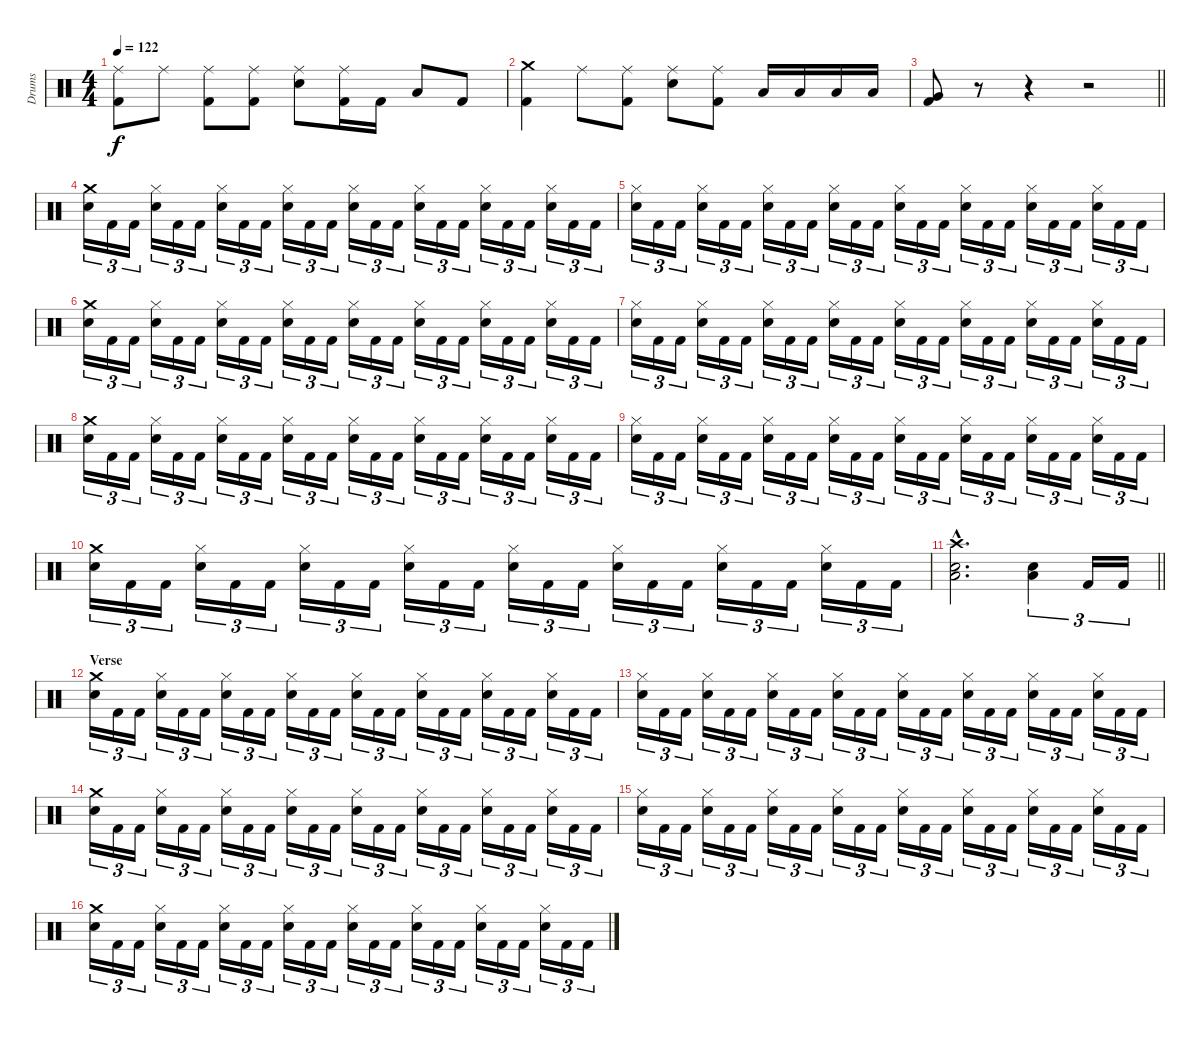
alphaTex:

\track ("Drums" "Drums") {instrument percussion}
\staff {score}
\articulation defaults
\ts (4 4)
\tempo 122
\clef neutral
\ks c
("Ride (middle)" "Kick (hit) 2").8{dy f} "Ride (middle)".8 ("Ride (middle)" "Kick (hit) 2").8 ("Ride (middle)" "Kick (hit) 2").8 ("Ride (middle)" "Electric Snare (hit)").8 ("Ride (middle)" "Kick (hit) 2").16 "Kick (hit) 2".16 "Low Tom (hit)".8 "Kick (hit) 2".8 |
("Crash medium (hit)" "Kick (hit) 2").4 "Ride (middle)".8 ("Ride (middle)" "Kick (hit) 2").8 ("Ride (middle)" "Electric Snare (hit)").8 ("Ride (middle)" "Kick (hit) 2").8 "Low Tom (hit)".16 "Low Tom (hit)".16 "Low Tom (hit)".16 "Low Tom (hit)".16 |
\barLineRight lightlight
("Very Low Tom (hit)" "Kick (hit) 2").8 r.8 r.4 r.2 |
\section ("" "")
("Crash medium (hit)" "Electric Snare (hit)").16{tu (3 2)} "Kick (hit) 2".16{tu (3 2)} "Kick (hit) 2".16{tu (3 2)} ("Hi-Hat (closed)" "Electric Snare (hit)").16{tu (3 2)} "Kick (hit) 2".16{tu (3 2)} "Kick (hit) 2".16{tu (3 2)} ("Hi-Hat (closed)" "Electric Snare (hit)").16{tu (3 2)} "Kick (hit) 2".16{tu (3 2)} "Kick (hit) 2".16{tu (3 2)} ("Hi-Hat (closed)" "Electric Snare (hit)").16{tu (3 2)} "Kick (hit) 2".16{tu (3 2)} "Kick (hit) 2".16{tu (3 2)} ("Hi-Hat (closed)" "Electric Snare (hit)").16{tu (3 2)} "Kick (hit) 2".16{tu (3 2)} "Kick (hit) 2".16{tu (3 2)} ("Hi-Hat (closed)" "Electric Snare (hit)").16{tu (3 2)} "Kick (hit) 2".16{tu (3 2)} "Kick (hit) 2".16{tu (3 2)} ("Hi-Hat (closed)" "Electric Snare (hit)").16{tu (3 2)} "Kick (hit) 2".16{tu (3 2)} "Kick (hit) 2".16{tu (3 2)} ("Hi-Hat (closed)" "Electric Snare (hit)").16{tu (3 2)} "Kick (hit) 2".16{tu (3 2)} "Kick (hit) 2".16{tu (3 2)} |
("Hi-Hat (closed)" "Electric Snare (hit)").16{tu (3 2)} "Kick (hit) 2".16{tu (3 2)} "Kick (hit) 2".16{tu (3 2)} ("Hi-Hat (closed)" "Electric Snare (hit)").16{tu (3 2)} "Kick (hit) 2".16{tu (3 2)} "Kick (hit) 2".16{tu (3 2)} ("Hi-Hat (closed)" "Electric Snare (hit)").16{tu (3 2)} "Kick (hit) 2".16{tu (3 2)} "Kick (hit) 2".16{tu (3 2)} ("Hi-Hat (closed)" "Electric Snare (hit)").16{tu (3 2)} "Kick (hit) 2".16{tu (3 2)} "Kick (hit) 2".16{tu (3 2)} ("Hi-Hat (closed)" "Electric Snare (hit)").16{tu (3 2)} "Kick (hit) 2".16{tu (3 2)} "Kick (hit) 2".16{tu (3 2)} ("Hi-Hat (closed)" "Electric Snare (hit)").16{tu (3 2)} "Kick (hit) 2".16{tu (3 2)} "Kick (hit) 2".16{tu (3 2)} ("Hi-Hat (closed)" "Electric Snare (hit)").16{tu (3 2)} "Kick (hit) 2".16{tu (3 2)} "Kick (hit) 2".16{tu (3 2)} ("Hi-Hat (closed)" "Electric Snare (hit)").16{tu (3 2)} "Kick (hit) 2".16{tu (3 2)} "Kick (hit) 2".16{tu (3 2)} |
("Crash medium (hit)" "Electric Snare (hit)").16{tu (3 2)} "Kick (hit) 2".16{tu (3 2)} "Kick (hit) 2".16{tu (3 2)} ("Hi-Hat (closed)" "Electric Snare (hit)").16{tu (3 2)} "Kick (hit) 2".16{tu (3 2)} "Kick (hit) 2".16{tu (3 2)} ("Hi-Hat (closed)" "Electric Snare (hit)").16{tu (3 2)} "Kick (hit) 2".16{tu (3 2)} "Kick (hit) 2".16{tu (3 2)} ("Hi-Hat (closed)" "Electric Snare (hit)").16{tu (3 2)} "Kick (hit) 2".16{tu (3 2)} "Kick (hit) 2".16{tu (3 2)} ("Hi-Hat (closed)" "Electric Snare (hit)").16{tu (3 2)} "Kick (hit) 2".16{tu (3 2)} "Kick (hit) 2".16{tu (3 2)} ("Hi-Hat (closed)" "Electric Snare (hit)").16{tu (3 2)} "Kick (hit) 2".16{tu (3 2)} "Kick (hit) 2".16{tu (3 2)} ("Hi-Hat (closed)" "Electric Snare (hit)").16{tu (3 2)} "Kick (hit) 2".16{tu (3 2)} "Kick (hit) 2".16{tu (3 2)} ("Hi-Hat (closed)" "Electric Snare (hit)").16{tu (3 2)} "Kick (hit) 2".16{tu (3 2)} "Kick (hit) 2".16{tu (3 2)} |
("Hi-Hat (closed)" "Electric Snare (hit)").16{tu (3 2)} "Kick (hit) 2".16{tu (3 2)} "Kick (hit) 2".16{tu (3 2)} ("Hi-Hat (closed)" "Electric Snare (hit)").16{tu (3 2)} "Kick (hit) 2".16{tu (3 2)} "Kick (hit) 2".16{tu (3 2)} ("Hi-Hat (closed)" "Electric Snare (hit)").16{tu (3 2)} "Kick (hit) 2".16{tu (3 2)} "Kick (hit) 2".16{tu (3 2)} ("Hi-Hat (closed)" "Electric Snare (hit)").16{tu (3 2)} "Kick (hit) 2".16{tu (3 2)} "Kick (hit) 2".16{tu (3 2)} ("Hi-Hat (closed)" "Electric Snare (hit)").16{tu (3 2)} "Kick (hit) 2".16{tu (3 2)} "Kick (hit) 2".16{tu (3 2)} ("Hi-Hat (closed)" "Electric Snare (hit)").16{tu (3 2)} "Kick (hit) 2".16{tu (3 2)} "Kick (hit) 2".16{tu (3 2)} ("Hi-Hat (closed)" "Electric Snare (hit)").16{tu (3 2)} "Kick (hit) 2".16{tu (3 2)} "Kick (hit) 2".16{tu (3 2)} ("Hi-Hat (closed)" "Electric Snare (hit)").16{tu (3 2)} "Kick (hit) 2".16{tu (3 2)} "Kick (hit) 2".16{tu (3 2)} |
("Crash medium (hit)" "Electric Snare (hit)").16{tu (3 2)} "Kick (hit) 2".16{tu (3 2)} "Kick (hit) 2".16{tu (3 2)} ("Hi-Hat (closed)" "Electric Snare (hit)").16{tu (3 2)} "Kick (hit) 2".16{tu (3 2)} "Kick (hit) 2".16{tu (3 2)} ("Hi-Hat (closed)" "Electric Snare (hit)").16{tu (3 2)} "Kick (hit) 2".16{tu (3 2)} "Kick (hit) 2".16{tu (3 2)} ("Hi-Hat (closed)" "Electric Snare (hit)").16{tu (3 2)} "Kick (hit) 2".16{tu (3 2)} "Kick (hit) 2".16{tu (3 2)} ("Hi-Hat (closed)" "Electric Snare (hit)").16{tu (3 2)} "Kick (hit) 2".16{tu (3 2)} "Kick (hit) 2".16{tu (3 2)} ("Hi-Hat (closed)" "Electric Snare (hit)").16{tu (3 2)} "Kick (hit) 2".16{tu (3 2)} "Kick (hit) 2".16{tu (3 2)} ("Hi-Hat (closed)" "Electric Snare (hit)").16{tu (3 2)} "Kick (hit) 2".16{tu (3 2)} "Kick (hit) 2".16{tu (3 2)} ("Hi-Hat (closed)" "Electric Snare (hit)").16{tu (3 2)} "Kick (hit) 2".16{tu (3 2)} "Kick (hit) 2".16{tu (3 2)} |
("Hi-Hat (closed)" "Electric Snare (hit)").16{tu (3 2)} "Kick (hit) 2".16{tu (3 2)} "Kick (hit) 2".16{tu (3 2)} ("Hi-Hat (closed)" "Electric Snare (hit)").16{tu (3 2)} "Kick (hit) 2".16{tu (3 2)} "Kick (hit) 2".16{tu (3 2)} ("Hi-Hat (closed)" "Electric Snare (hit)").16{tu (3 2)} "Kick (hit) 2".16{tu (3 2)} "Kick (hit) 2".16{tu (3 2)} ("Hi-Hat (closed)" "Electric Snare (hit)").16{tu (3 2)} "Kick (hit) 2".16{tu (3 2)} "Kick (hit) 2".16{tu (3 2)} ("Hi-Hat (closed)" "Electric Snare (hit)").16{tu (3 2)} "Kick (hit) 2".16{tu (3 2)} "Kick (hit) 2".16{tu (3 2)} ("Hi-Hat (closed)" "Electric Snare (hit)").16{tu (3 2)} "Kick (hit) 2".16{tu (3 2)} "Kick (hit) 2".16{tu (3 2)} ("Hi-Hat (closed)" "Electric Snare (hit)").16{tu (3 2)} "Kick (hit) 2".16{tu (3 2)} "Kick (hit) 2".16{tu (3 2)} ("Hi-Hat (closed)" "Electric Snare (hit)").16{tu (3 2)} "Kick (hit) 2".16{tu (3 2)} "Kick (hit) 2".16{tu (3 2)} |
("Crash medium (hit)" "Electric Snare (hit)").16{tu (3 2)} "Kick (hit) 2".16{tu (3 2)} "Kick (hit) 2".16{tu (3 2)} ("Hi-Hat (closed)" "Electric Snare (hit)").16{tu (3 2)} "Kick (hit) 2".16{tu (3 2)} "Kick (hit) 2".16{tu (3 2)} ("Hi-Hat (closed)" "Electric Snare (hit)").16{tu (3 2)} "Kick (hit) 2".16{tu (3 2)} "Kick (hit) 2".16{tu (3 2)} ("Hi-Hat (closed)" "Electric Snare (hit)").16{tu (3 2)} "Kick (hit) 2".16{tu (3 2)} "Kick (hit) 2".16{tu (3 2)} ("Hi-Hat (closed)" "Electric Snare (hit)").16{tu (3 2)} "Kick (hit) 2".16{tu (3 2)} "Kick (hit) 2".16{tu (3 2)} ("Hi-Hat (closed)" "Electric Snare (hit)").16{tu (3 2)} "Kick (hit) 2".16{tu (3 2)} "Kick (hit) 2".16{tu (3 2)} ("Hi-Hat (closed)" "Electric Snare (hit)").16{tu (3 2)} "Kick (hit) 2".16{tu (3 2)} "Kick (hit) 2".16{tu (3 2)} ("Hi-Hat (closed)" "Electric Snare (hit)").16{tu (3 2)} "Kick (hit) 2".16{tu (3 2)} "Kick (hit) 2".16{tu (3 2)} |
\barLineRight lightlight
("Crash high (hit)"{hac} "Low Tom (hit)"{hac} "Electric Snare (hit)"{hac}).2{d} ("Low Floor Tom (hit)" "Electric Snare (hit)").4{tu (3 2)} "Kick (hit) 2".16{tu (3 2)} "Kick (hit) 2".16{tu (3 2)} |
\section ("" "Verse")
("Crash medium (hit)" "Electric Snare (hit)").16{tu (3 2)} "Kick (hit) 2".16{tu (3 2)} "Kick (hit) 2".16{tu (3 2)} ("Hi-Hat (closed)" "Electric Snare (hit)").16{tu (3 2)} "Kick (hit) 2".16{tu (3 2)} "Kick (hit) 2".16{tu (3 2)} ("Hi-Hat (closed)" "Electric Snare (hit)").16{tu (3 2)} "Kick (hit) 2".16{tu (3 2)} "Kick (hit) 2".16{tu (3 2)} ("Hi-Hat (closed)" "Electric Snare (hit)").16{tu (3 2)} "Kick (hit) 2".16{tu (3 2)} "Kick (hit) 2".16{tu (3 2)} ("Hi-Hat (closed)" "Electric Snare (hit)").16{tu (3 2)} "Kick (hit) 2".16{tu (3 2)} "Kick (hit) 2".16{tu (3 2)} ("Hi-Hat (closed)" "Electric Snare (hit)").16{tu (3 2)} "Kick (hit) 2".16{tu (3 2)} "Kick (hit) 2".16{tu (3 2)} ("Hi-Hat (closed)" "Electric Snare (hit)").16{tu (3 2)} "Kick (hit) 2".16{tu (3 2)} "Kick (hit) 2".16{tu (3 2)} ("Hi-Hat (closed)" "Electric Snare (hit)").16{tu (3 2)} "Kick (hit) 2".16{tu (3 2)} "Kick (hit) 2".16{tu (3 2)} |
("Hi-Hat (closed)" "Electric Snare (hit)").16{tu (3 2)} "Kick (hit) 2".16{tu (3 2)} "Kick (hit) 2".16{tu (3 2)} ("Hi-Hat (closed)" "Electric Snare (hit)").16{tu (3 2)} "Kick (hit) 2".16{tu (3 2)} "Kick (hit) 2".16{tu (3 2)} ("Hi-Hat (closed)" "Electric Snare (hit)").16{tu (3 2)} "Kick (hit) 2".16{tu (3 2)} "Kick (hit) 2".16{tu (3 2)} ("Hi-Hat (closed)" "Electric Snare (hit)").16{tu (3 2)} "Kick (hit) 2".16{tu (3 2)} "Kick (hit) 2".16{tu (3 2)} ("Hi-Hat (closed)" "Electric Snare (hit)").16{tu (3 2)} "Kick (hit) 2".16{tu (3 2)} "Kick (hit) 2".16{tu (3 2)} ("Hi-Hat (closed)" "Electric Snare (hit)").16{tu (3 2)} "Kick (hit) 2".16{tu (3 2)} "Kick (hit) 2".16{tu (3 2)} ("Hi-Hat (closed)" "Electric Snare (hit)").16{tu (3 2)} "Kick (hit) 2".16{tu (3 2)} "Kick (hit) 2".16{tu (3 2)} ("Hi-Hat (closed)" "Electric Snare (hit)").16{tu (3 2)} "Kick (hit) 2".16{tu (3 2)} "Kick (hit) 2".16{tu (3 2)} |
("Crash medium (hit)" "Electric Snare (hit)").16{tu (3 2)} "Kick (hit) 2".16{tu (3 2)} "Kick (hit) 2".16{tu (3 2)} ("Hi-Hat (closed)" "Electric Snare (hit)").16{tu (3 2)} "Kick (hit) 2".16{tu (3 2)} "Kick (hit) 2".16{tu (3 2)} ("Hi-Hat (closed)" "Electric Snare (hit)").16{tu (3 2)} "Kick (hit) 2".16{tu (3 2)} "Kick (hit) 2".16{tu (3 2)} ("Hi-Hat (closed)" "Electric Snare (hit)").16{tu (3 2)} "Kick (hit) 2".16{tu (3 2)} "Kick (hit) 2".16{tu (3 2)} ("Hi-Hat (closed)" "Electric Snare (hit)").16{tu (3 2)} "Kick (hit) 2".16{tu (3 2)} "Kick (hit) 2".16{tu (3 2)} ("Hi-Hat (closed)" "Electric Snare (hit)").16{tu (3 2)} "Kick (hit) 2".16{tu (3 2)} "Kick (hit) 2".16{tu (3 2)} ("Hi-Hat (closed)" "Electric Snare (hit)").16{tu (3 2)} "Kick (hit) 2".16{tu (3 2)} "Kick (hit) 2".16{tu (3 2)} ("Hi-Hat (closed)" "Electric Snare (hit)").16{tu (3 2)} "Kick (hit) 2".16{tu (3 2)} "Kick (hit) 2".16{tu (3 2)} |
("Hi-Hat (closed)" "Electric Snare (hit)").16{tu (3 2)} "Kick (hit) 2".16{tu (3 2)} "Kick (hit) 2".16{tu (3 2)} ("Hi-Hat (closed)" "Electric Snare (hit)").16{tu (3 2)} "Kick (hit) 2".16{tu (3 2)} "Kick (hit) 2".16{tu (3 2)} ("Hi-Hat (closed)" "Electric Snare (hit)").16{tu (3 2)} "Kick (hit) 2".16{tu (3 2)} "Kick (hit) 2".16{tu (3 2)} ("Hi-Hat (closed)" "Electric Snare (hit)").16{tu (3 2)} "Kick (hit) 2".16{tu (3 2)} "Kick (hit) 2".16{tu (3 2)} ("Hi-Hat (closed)" "Electric Snare (hit)").16{tu (3 2)} "Kick (hit) 2".16{tu (3 2)} "Kick (hit) 2".16{tu (3 2)} ("Hi-Hat (closed)" "Electric Snare (hit)").16{tu (3 2)} "Kick (hit) 2".16{tu (3 2)} "Kick (hit) 2".16{tu (3 2)} ("Hi-Hat (closed)" "Electric Snare (hit)").16{tu (3 2)} "Kick (hit) 2".16{tu (3 2)} "Kick (hit) 2".16{tu (3 2)} ("Hi-Hat (closed)" "Electric Snare (hit)").16{tu (3 2)} "Kick (hit) 2".16{tu (3 2)} "Kick (hit) 2".16{tu (3 2)} |
("Crash medium (hit)" "Electric Snare (hit)").16{tu (3 2)} "Kick (hit) 2".16{tu (3 2)} "Kick (hit) 2".16{tu (3 2)} ("Hi-Hat (closed)" "Electric Snare (hit)").16{tu (3 2)} "Kick (hit) 2".16{tu (3 2)} "Kick (hit) 2".16{tu (3 2)} ("Hi-Hat (closed)" "Electric Snare (hit)").16{tu (3 2)} "Kick (hit) 2".16{tu (3 2)} "Kick (hit) 2".16{tu (3 2)} ("Hi-Hat (closed)" "Electric Snare (hit)").16{tu (3 2)} "Kick (hit) 2".16{tu (3 2)} "Kick (hit) 2".16{tu (3 2)} ("Hi-Hat (closed)" "Electric Snare (hit)").16{tu (3 2)} "Kick (hit) 2".16{tu (3 2)} "Kick (hit) 2".16{tu (3 2)} ("Hi-Hat (closed)" "Electric Snare (hit)").16{tu (3 2)} "Kick (hit) 2".16{tu (3 2)} "Kick (hit) 2".16{tu (3 2)} ("Hi-Hat (closed)" "Electric Snare (hit)").16{tu (3 2)} "Kick (hit) 2".16{tu (3 2)} "Kick (hit) 2".16{tu (3 2)} ("Hi-Hat (closed)" "Electric Snare (hit)").16{tu (3 2)} "Kick (hit) 2".16{tu (3 2)} "Kick (hit) 2".16{tu (3 2)}
